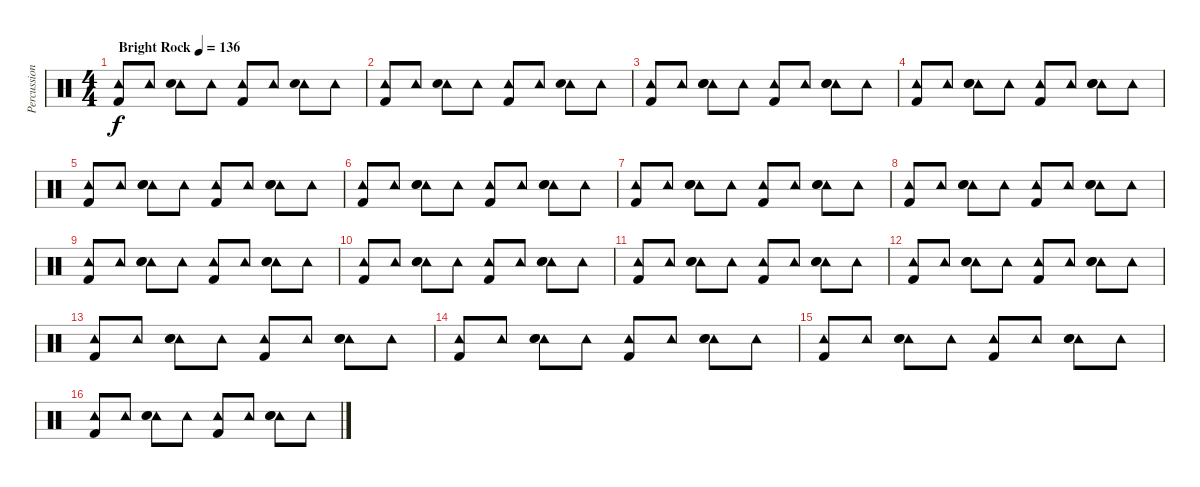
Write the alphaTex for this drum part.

\track ("Percussion" "Percussion") {instrument percussion}
\staff {score}
\articulation defaults
\ts (4 4)
\tempo (136 "Bright Rock")
\clef neutral
\ks c
("Tambourine (hit)" "Kick (hit) 2").8{dy f} "Tambourine (hit)".8 ("Tambourine (hit)" "Snare (hit) 2").8 "Tambourine (hit)".8 ("Tambourine (hit)" "Kick (hit) 2").8 "Tambourine (hit)".8 ("Tambourine (hit)" "Snare (hit) 2").8 "Tambourine (hit)".8 |
("Tambourine (hit)" "Kick (hit) 2").8 "Tambourine (hit)".8 ("Tambourine (hit)" "Snare (hit) 2").8 "Tambourine (hit)".8 ("Tambourine (hit)" "Kick (hit) 2").8 "Tambourine (hit)".8 ("Tambourine (hit)" "Snare (hit) 2").8 "Tambourine (hit)".8 |
("Tambourine (hit)" "Kick (hit) 2").8 "Tambourine (hit)".8 ("Tambourine (hit)" "Snare (hit) 2" "Hand Clap (hit)").8 "Tambourine (hit)".8 ("Tambourine (hit)" "Kick (hit) 2").8 "Tambourine (hit)".8 ("Tambourine (hit)" "Snare (hit) 2" "Hand Clap (hit)").8 "Tambourine (hit)".8 |
("Tambourine (hit)" "Kick (hit) 2").8 "Tambourine (hit)".8 ("Tambourine (hit)" "Snare (hit) 2" "Hand Clap (hit)").8 "Tambourine (hit)".8 ("Tambourine (hit)" "Kick (hit) 2").8 "Tambourine (hit)".8 ("Tambourine (hit)" "Snare (hit) 2" "Hand Clap (hit)").8 "Tambourine (hit)".8 |
("Tambourine (hit)" "Kick (hit) 2").8 "Tambourine (hit)".8 ("Tambourine (hit)" "Snare (hit) 2" "Hand Clap (hit)").8 "Tambourine (hit)".8 ("Tambourine (hit)" "Kick (hit) 2").8 "Tambourine (hit)".8 ("Tambourine (hit)" "Snare (hit) 2" "Hand Clap (hit)").8 "Tambourine (hit)".8 |
("Tambourine (hit)" "Kick (hit) 2").8 "Tambourine (hit)".8 ("Tambourine (hit)" "Snare (hit) 2" "Hand Clap (hit)").8 "Tambourine (hit)".8 ("Tambourine (hit)" "Kick (hit) 2").8 "Tambourine (hit)".8 ("Tambourine (hit)" "Snare (hit) 2" "Hand Clap (hit)").8 "Tambourine (hit)".8 |
("Tambourine (hit)" "Kick (hit) 2").8 "Tambourine (hit)".8 ("Tambourine (hit)" "Snare (hit) 2" "Hand Clap (hit)").8 "Tambourine (hit)".8 ("Tambourine (hit)" "Kick (hit) 2").8 "Tambourine (hit)".8 ("Tambourine (hit)" "Snare (hit) 2" "Hand Clap (hit)").8 "Tambourine (hit)".8 |
("Tambourine (hit)" "Kick (hit) 2").8 "Tambourine (hit)".8 ("Tambourine (hit)" "Snare (hit) 2" "Hand Clap (hit)").8 "Tambourine (hit)".8 ("Tambourine (hit)" "Kick (hit) 2").8 "Tambourine (hit)".8 ("Tambourine (hit)" "Snare (hit) 2" "Hand Clap (hit)").8 "Tambourine (hit)".8 |
("Tambourine (hit)" "Kick (hit) 2").8 "Tambourine (hit)".8 ("Tambourine (hit)" "Snare (hit) 2" "Hand Clap (hit)").8 "Tambourine (hit)".8 ("Tambourine (hit)" "Kick (hit) 2").8 "Tambourine (hit)".8 ("Tambourine (hit)" "Snare (hit) 2" "Hand Clap (hit)").8 "Tambourine (hit)".8 |
("Tambourine (hit)" "Kick (hit) 2").8 "Tambourine (hit)".8 ("Tambourine (hit)" "Snare (hit) 2" "Hand Clap (hit)").8 "Tambourine (hit)".8 ("Tambourine (hit)" "Kick (hit) 2").8 "Tambourine (hit)".8 ("Tambourine (hit)" "Snare (hit) 2" "Hand Clap (hit)").8 "Tambourine (hit)".8 |
("Tambourine (hit)" "Kick (hit) 2").8 "Tambourine (hit)".8 ("Tambourine (hit)" "Snare (hit) 2" "Hand Clap (hit)").8 "Tambourine (hit)".8 ("Tambourine (hit)" "Kick (hit) 2").8 "Tambourine (hit)".8 ("Tambourine (hit)" "Snare (hit) 2" "Hand Clap (hit)").8 "Tambourine (hit)".8 |
("Tambourine (hit)" "Kick (hit) 2").8 "Tambourine (hit)".8 ("Tambourine (hit)" "Snare (hit) 2" "Hand Clap (hit)").8 "Tambourine (hit)".8 ("Tambourine (hit)" "Kick (hit) 2").8 "Tambourine (hit)".8 ("Tambourine (hit)" "Snare (hit) 2" "Hand Clap (hit)").8 "Tambourine (hit)".8 |
("Tambourine (hit)" "Kick (hit) 2").8 "Tambourine (hit)".8 ("Tambourine (hit)" "Snare (hit) 2" "Hand Clap (hit)").8 "Tambourine (hit)".8 ("Tambourine (hit)" "Kick (hit) 2").8 "Tambourine (hit)".8 ("Tambourine (hit)" "Snare (hit) 2" "Hand Clap (hit)").8 "Tambourine (hit)".8 |
("Tambourine (hit)" "Kick (hit) 2").8 "Tambourine (hit)".8 ("Tambourine (hit)" "Snare (hit) 2" "Hand Clap (hit)").8 "Tambourine (hit)".8 ("Tambourine (hit)" "Kick (hit) 2").8 "Tambourine (hit)".8 ("Tambourine (hit)" "Snare (hit) 2" "Hand Clap (hit)").8 "Tambourine (hit)".8 |
("Tambourine (hit)" "Kick (hit) 2").8 "Tambourine (hit)".8 ("Tambourine (hit)" "Snare (hit) 2" "Hand Clap (hit)").8 "Tambourine (hit)".8 ("Tambourine (hit)" "Kick (hit) 2").8 "Tambourine (hit)".8 ("Tambourine (hit)" "Snare (hit) 2" "Hand Clap (hit)").8 "Tambourine (hit)".8 |
("Tambourine (hit)" "Kick (hit) 2").8 "Tambourine (hit)".8 ("Tambourine (hit)" "Snare (hit) 2" "Hand Clap (hit)").8 "Tambourine (hit)".8 ("Tambourine (hit)" "Kick (hit) 2").8 "Tambourine (hit)".8 ("Tambourine (hit)" "Snare (hit) 2" "Hand Clap (hit)").8 "Tambourine (hit)".8
